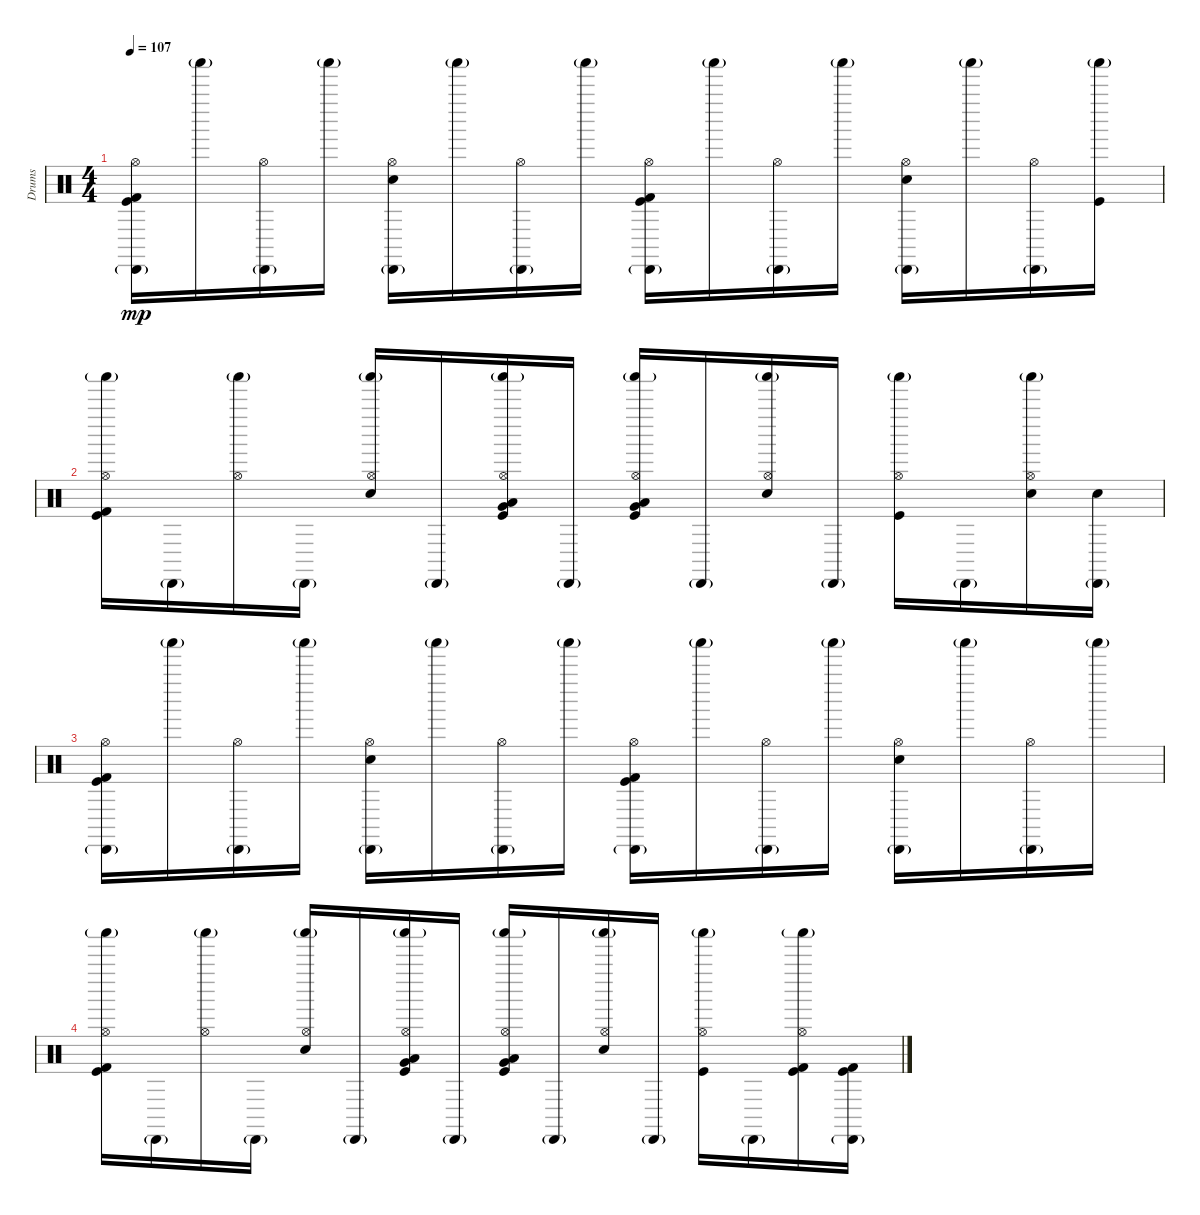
\track ("Drums" "Drums") {instrument percussion}
\staff {score}
\articulation defaults
\ts (4 4)
\tempo 107
\clef neutral
\ks c
("Hi-Hat (open)" "Cabasa (hit)"{g} "Kick (hit) 2" "Kick (hit)").16{dy mp} "Shaker (hit)"{g}.16 ("Hi-Hat (open)" "Cabasa (hit)"{g}).16 "Shaker (hit)"{g}.16 ("Hi-Hat (open)" "Cabasa (hit)"{g} "Electric Snare (hit)").16 "Shaker (hit)"{g}.16 ("Hi-Hat (open)" "Cabasa (hit)"{g}).16 "Shaker (hit)"{g}.16 ("Hi-Hat (open)" "Cabasa (hit)"{g} "Kick (hit) 2" "Kick (hit)").16 "Shaker (hit)"{g}.16 ("Hi-Hat (open)" "Cabasa (hit)"{g}).16 "Shaker (hit)"{g}.16 ("Hi-Hat (open)" "Cabasa (hit)"{g} "Electric Snare (hit)").16 "Shaker (hit)"{g}.16 ("Hi-Hat (open)" "Cabasa (hit)"{g}).16 ("Shaker (hit)"{g} "Kick (hit)").16 |
("Hi-Hat (open)" "Shaker (hit)"{g} "Kick (hit) 2" "Kick (hit)").16 "Cabasa (hit)"{g}.16 ("Hi-Hat (open)" "Shaker (hit)"{g}).16 "Cabasa (hit)"{g}.16 ("Hi-Hat (open)" "Shaker (hit)"{g} "Electric Snare (hit)").16 "Cabasa (hit)"{g}.16 ("Hi-Hat (open)" "Shaker (hit)"{g} "Kick (hit)" "Very Low Tom (hit)" "Low Tom (hit)").16 "Cabasa (hit)"{g}.16 ("Hi-Hat (open)" "Shaker (hit)"{g} "Kick (hit)" "Very Low Tom (hit)" "Low Tom (hit)").16 "Cabasa (hit)"{g}.16 ("Hi-Hat (open)" "Shaker (hit)"{g} "Electric Snare (hit)").16 "Cabasa (hit)"{g}.16 ("Hi-Hat (open)" "Shaker (hit)"{g} "Kick (hit)").16 "Cabasa (hit)"{g}.16 ("Hi-Hat (open)" "Shaker (hit)"{g} "Electric Snare (hit)").16 ("Cabasa (hit)"{g} "Electric Snare (hit)").16 |
("Hi-Hat (open)" "Cabasa (hit)"{g} "Kick (hit) 2" "Kick (hit)").16 "Shaker (hit)"{g}.16 ("Hi-Hat (open)" "Cabasa (hit)"{g}).16 "Shaker (hit)"{g}.16 ("Hi-Hat (open)" "Cabasa (hit)"{g} "Electric Snare (hit)").16 "Shaker (hit)"{g}.16 ("Hi-Hat (open)" "Cabasa (hit)"{g}).16 "Shaker (hit)"{g}.16 ("Hi-Hat (open)" "Cabasa (hit)"{g} "Kick (hit) 2" "Kick (hit)").16 "Shaker (hit)"{g}.16 ("Hi-Hat (open)" "Cabasa (hit)"{g}).16 "Shaker (hit)"{g}.16 ("Hi-Hat (open)" "Cabasa (hit)"{g} "Electric Snare (hit)").16 "Shaker (hit)"{g}.16 ("Hi-Hat (open)" "Cabasa (hit)"{g}).16 "Shaker (hit)"{g}.16 |
("Hi-Hat (open)" "Shaker (hit)"{g} "Kick (hit) 2" "Kick (hit)").16 "Cabasa (hit)"{g}.16 ("Hi-Hat (open)" "Shaker (hit)"{g}).16 "Cabasa (hit)"{g}.16 ("Hi-Hat (open)" "Shaker (hit)"{g} "Electric Snare (hit)").16 "Cabasa (hit)"{g}.16 ("Hi-Hat (open)" "Shaker (hit)"{g} "Kick (hit)" "Very Low Tom (hit)" "Low Tom (hit)").16 "Cabasa (hit)"{g}.16 ("Hi-Hat (open)" "Shaker (hit)"{g} "Kick (hit)" "Very Low Tom (hit)" "Low Tom (hit)").16 "Cabasa (hit)"{g}.16 ("Hi-Hat (open)" "Shaker (hit)"{g} "Electric Snare (hit)").16 "Cabasa (hit)"{g}.16 ("Hi-Hat (open)" "Shaker (hit)"{g} "Kick (hit)").16 "Cabasa (hit)"{g}.16 ("Hi-Hat (open)" "Shaker (hit)"{g} "Kick (hit) 2" "Kick (hit)").16 ("Cabasa (hit)"{g} "Kick (hit) 2" "Kick (hit)").16
